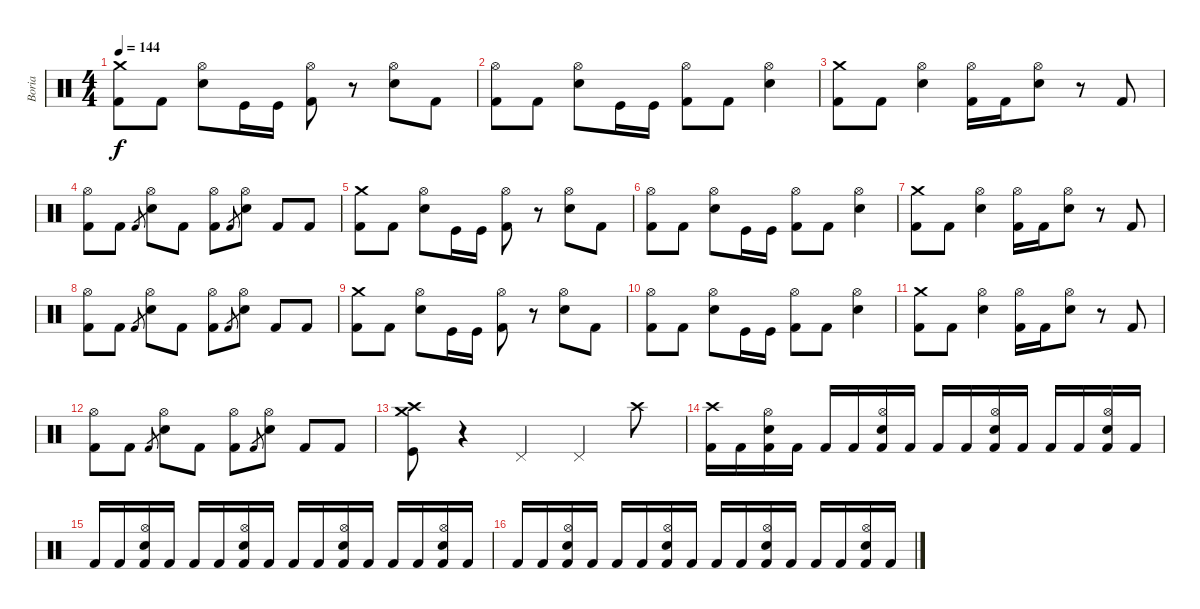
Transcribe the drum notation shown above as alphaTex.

\track ("Boria" "Boria") {instrument percussion}
\staff {score}
\articulation defaults
\ts (4 4)
\tempo 144
\clef neutral
\ks c
("Kick (hit) 2" "Crash medium (hit)").8{dy f} "Kick (hit) 2".8 ("Hi-Hat (open)" "Electric Snare (hit)").8 "Kick (hit)".16 "Kick (hit)".16 ("Hi-Hat (open)" "Kick (hit) 2").8 r.8 ("Hi-Hat (open)" "Electric Snare (hit)").8 "Kick (hit) 2".8 |
("Kick (hit) 2" "Hi-Hat (open)").8 "Kick (hit) 2".8 ("Hi-Hat (open)" "Electric Snare (hit)").8 "Kick (hit)".16 "Kick (hit)".16 ("Hi-Hat (open)" "Kick (hit) 2").8 "Kick (hit) 2".8 ("Hi-Hat (open)" "Electric Snare (hit)").4 |
("Kick (hit) 2" "Crash medium (hit)").8 "Kick (hit) 2".8 ("Hi-Hat (open)" "Electric Snare (hit)").4 ("Hi-Hat (open)" "Kick (hit) 2").16 "Kick (hit) 2".16 ("Hi-Hat (open)" "Electric Snare (hit)").8 r.8 "Kick (hit) 2".8 |
("Kick (hit) 2" "Hi-Hat (open)").8 "Kick (hit) 2".8 "Kick (hit) 2".8{gr} ("Hi-Hat (open)" "Snare (hit) 2").8 "Kick (hit) 2".8 ("Hi-Hat (open)" "Kick (hit) 2").8 "Kick (hit) 2".8{gr} ("Hi-Hat (open)" "Snare (hit) 2").8 "Kick (hit) 2".8 "Kick (hit) 2".8 |
("Kick (hit) 2" "Crash medium (hit)").8 "Kick (hit) 2".8 ("Hi-Hat (open)" "Electric Snare (hit)").8 "Kick (hit)".16 "Kick (hit)".16 ("Hi-Hat (open)" "Kick (hit) 2").8 r.8 ("Hi-Hat (open)" "Electric Snare (hit)").8 "Kick (hit) 2".8 |
("Kick (hit) 2" "Hi-Hat (open)").8 "Kick (hit) 2".8 ("Hi-Hat (open)" "Electric Snare (hit)").8 "Kick (hit)".16 "Kick (hit)".16 ("Hi-Hat (open)" "Kick (hit) 2").8 "Kick (hit) 2".8 ("Hi-Hat (open)" "Electric Snare (hit)").4 |
("Kick (hit) 2" "Crash medium (hit)").8 "Kick (hit) 2".8 ("Hi-Hat (open)" "Electric Snare (hit)").4 ("Hi-Hat (open)" "Kick (hit) 2").16 "Kick (hit) 2".16 ("Hi-Hat (open)" "Electric Snare (hit)").8 r.8 "Kick (hit) 2".8 |
("Kick (hit) 2" "Hi-Hat (open)").8 "Kick (hit) 2".8 "Kick (hit) 2".8{gr} ("Hi-Hat (open)" "Snare (hit) 2").8 "Kick (hit) 2".8 ("Hi-Hat (open)" "Kick (hit) 2").8 "Kick (hit) 2".8{gr} ("Hi-Hat (open)" "Snare (hit) 2").8 "Kick (hit) 2".8 "Kick (hit) 2".8 |
("Kick (hit) 2" "Crash medium (hit)").8 "Kick (hit) 2".8 ("Hi-Hat (open)" "Electric Snare (hit)").8 "Kick (hit)".16 "Kick (hit)".16 ("Hi-Hat (open)" "Kick (hit) 2").8 r.8 ("Hi-Hat (open)" "Electric Snare (hit)").8 "Kick (hit) 2".8 |
("Kick (hit) 2" "Hi-Hat (open)").8 "Kick (hit) 2".8 ("Hi-Hat (open)" "Electric Snare (hit)").8 "Kick (hit)".16 "Kick (hit)".16 ("Hi-Hat (open)" "Kick (hit) 2").8 "Kick (hit) 2".8 ("Hi-Hat (open)" "Electric Snare (hit)").4 |
("Kick (hit) 2" "Crash medium (hit)").8 "Kick (hit) 2".8 ("Hi-Hat (open)" "Electric Snare (hit)").4 ("Hi-Hat (open)" "Kick (hit) 2").16 "Kick (hit) 2".16 ("Hi-Hat (open)" "Electric Snare (hit)").8 r.8 "Kick (hit) 2".8 |
("Kick (hit) 2" "Hi-Hat (open)").8 "Kick (hit) 2".8 "Kick (hit) 2".8{gr} ("Hi-Hat (open)" "Snare (hit) 2").8 "Kick (hit) 2".8 ("Hi-Hat (open)" "Kick (hit) 2").8 "Kick (hit) 2".8{gr} ("Hi-Hat (open)" "Snare (hit) 2").8 "Kick (hit) 2".8 "Kick (hit) 2".8 |
("Crash medium (hit)" "Crash high (hit)" "Kick (hit)").8 r.4 "Pedal Hi-Hat (hit)".4 "Pedal Hi-Hat (hit)".4 "Crash high (hit)".8 |
("Crash high (hit)" "Kick (hit) 2").16 "Kick (hit) 2".16 ("Hi-Hat (open)" "Electric Snare (hit)" "Kick (hit) 2").16 "Kick (hit) 2".16 "Kick (hit) 2".16 "Kick (hit) 2".16 ("Hi-Hat (open)" "Electric Snare (hit)" "Kick (hit) 2").16 "Kick (hit) 2".16 "Kick (hit) 2".16 "Kick (hit) 2".16 ("Hi-Hat (open)" "Electric Snare (hit)" "Kick (hit) 2").16 "Kick (hit) 2".16 "Kick (hit) 2".16 "Kick (hit) 2".16 ("Hi-Hat (open)" "Electric Snare (hit)" "Kick (hit) 2").16 "Kick (hit) 2".16 |
"Kick (hit) 2".16 "Kick (hit) 2".16 ("Hi-Hat (open)" "Electric Snare (hit)" "Kick (hit) 2").16 "Kick (hit) 2".16 "Kick (hit) 2".16 "Kick (hit) 2".16 ("Hi-Hat (open)" "Electric Snare (hit)" "Kick (hit) 2").16 "Kick (hit) 2".16 "Kick (hit) 2".16 "Kick (hit) 2".16 ("Hi-Hat (open)" "Electric Snare (hit)" "Kick (hit) 2").16 "Kick (hit) 2".16 "Kick (hit) 2".16 "Kick (hit) 2".16 ("Hi-Hat (open)" "Electric Snare (hit)" "Kick (hit) 2").16 "Kick (hit) 2".16 |
"Kick (hit) 2".16 "Kick (hit) 2".16 ("Hi-Hat (open)" "Electric Snare (hit)" "Kick (hit) 2").16 "Kick (hit) 2".16 "Kick (hit) 2".16 "Kick (hit) 2".16 ("Hi-Hat (open)" "Electric Snare (hit)" "Kick (hit) 2").16 "Kick (hit) 2".16 "Kick (hit) 2".16 "Kick (hit) 2".16 ("Hi-Hat (open)" "Electric Snare (hit)" "Kick (hit) 2").16 "Kick (hit) 2".16 "Kick (hit) 2".16 "Kick (hit) 2".16 ("Hi-Hat (open)" "Electric Snare (hit)" "Kick (hit) 2").16 "Kick (hit) 2".16
